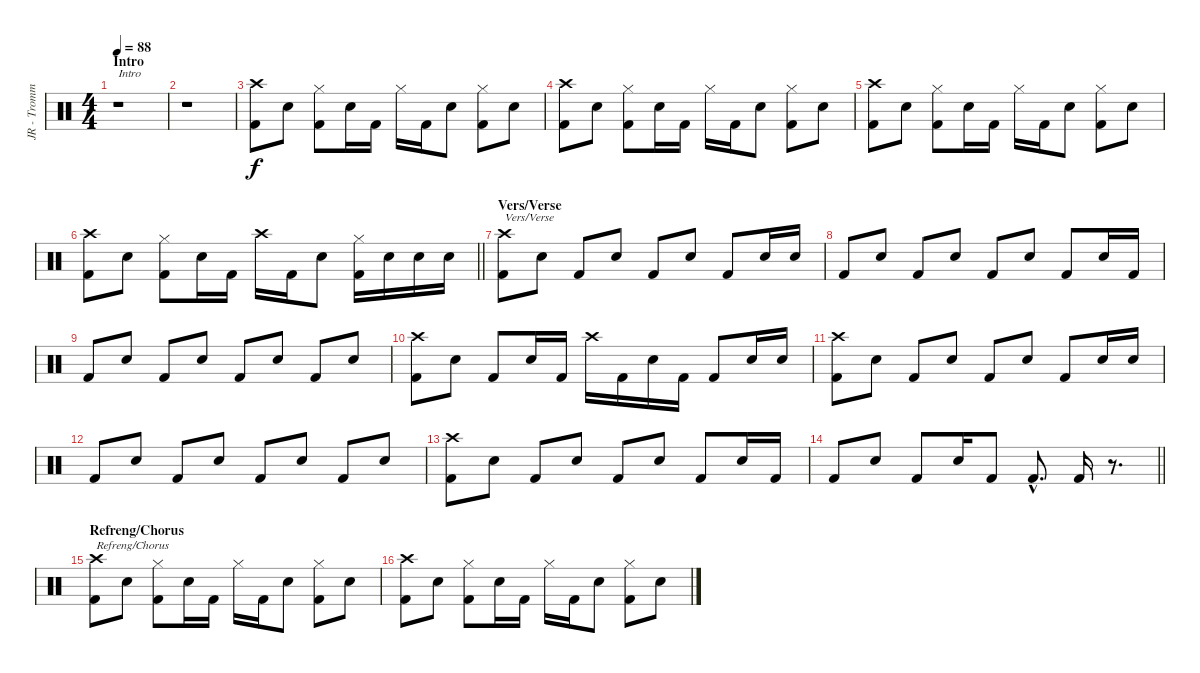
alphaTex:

\track ("JR - Trommesett" "JR - Tromm") {instrument percussion}
\staff {score}
\articulation defaults
\ts (4 4)
\section ("" "Intro")
\tempo 88
\clef neutral
\ks c
r.1{txt "Intro" dy f} |
r.1 |
("Crash high (hit)" "Kick (hit) 2").8 "Electric Snare (hit)".8 ("Hi-Hat (closed)" "Kick (hit) 2").8 "Electric Snare (hit)".16 "Kick (hit) 2".16 "Hi-Hat (closed)".16 "Kick (hit) 2".16 "Electric Snare (hit)".8 ("Hi-Hat (closed)" "Kick (hit) 2").8 "Electric Snare (hit)".8 |
("Crash high (hit)" "Kick (hit) 2").8 "Electric Snare (hit)".8 ("Hi-Hat (closed)" "Kick (hit) 2").8 "Electric Snare (hit)".16 "Kick (hit) 2".16 "Hi-Hat (closed)".16 "Kick (hit) 2".16 "Electric Snare (hit)".8 ("Hi-Hat (closed)" "Kick (hit) 2").8 "Electric Snare (hit)".8 |
("Crash high (hit)" "Kick (hit) 2").8 "Electric Snare (hit)".8 ("Hi-Hat (closed)" "Kick (hit) 2").8 "Electric Snare (hit)".16 "Kick (hit) 2".16 "Hi-Hat (closed)".16 "Kick (hit) 2".16 "Electric Snare (hit)".8 ("Hi-Hat (closed)" "Kick (hit) 2").8 "Electric Snare (hit)".8 |
\barLineRight lightlight
("Crash high (hit)" "Kick (hit) 2").8 "Electric Snare (hit)".8 ("Hi-Hat (closed)" "Kick (hit) 2").8 "Electric Snare (hit)".16 "Kick (hit) 2".16 "Crash high (hit)".16 "Kick (hit) 2".16 "Electric Snare (hit)".8 ("Hi-Hat (closed)" "Kick (hit) 2").16 "Electric Snare (hit)".16 "Electric Snare (hit)".16 "Electric Snare (hit)".16 |
\section ("" "Vers/Verse")
("Crash high (hit)" "Kick (hit) 2").8{txt "Vers/Verse"} "Electric Snare (hit)".8 "Kick (hit) 2".8 "Electric Snare (hit)".8 "Kick (hit) 2".8 "Electric Snare (hit)".8 "Kick (hit) 2".8 "Electric Snare (hit)".16 "Electric Snare (hit)".16 |
"Kick (hit) 2".8 "Electric Snare (hit)".8 "Kick (hit) 2".8 "Electric Snare (hit)".8 "Kick (hit) 2".8 "Electric Snare (hit)".8 "Kick (hit) 2".8 "Electric Snare (hit)".16 "Kick (hit) 2".16 |
"Kick (hit) 2".8 "Electric Snare (hit)".8 "Kick (hit) 2".8 "Electric Snare (hit)".8 "Kick (hit) 2".8 "Electric Snare (hit)".8 "Kick (hit) 2".8 "Electric Snare (hit)".8 |
("Crash high (hit)" "Kick (hit) 2").8 "Electric Snare (hit)".8 "Kick (hit) 2".8 "Electric Snare (hit)".16 "Kick (hit) 2".16 "Crash high (hit)".16 "Kick (hit) 2".16 "Electric Snare (hit)".16 "Kick (hit) 2".16 "Kick (hit) 2".8 "Electric Snare (hit)".16 "Electric Snare (hit)".16 |
("Crash high (hit)" "Kick (hit) 2").8 "Electric Snare (hit)".8 "Kick (hit) 2".8 "Electric Snare (hit)".8 "Kick (hit) 2".8 "Electric Snare (hit)".8 "Kick (hit) 2".8 "Electric Snare (hit)".16 "Electric Snare (hit)".16 |
"Kick (hit) 2".8 "Electric Snare (hit)".8 "Kick (hit) 2".8 "Electric Snare (hit)".8 "Kick (hit) 2".8 "Electric Snare (hit)".8 "Kick (hit) 2".8 "Electric Snare (hit)".8 |
("Crash high (hit)" "Kick (hit) 2").8 "Electric Snare (hit)".8 "Kick (hit) 2".8 "Electric Snare (hit)".8 "Kick (hit) 2".8 "Electric Snare (hit)".8 "Kick (hit) 2".8 "Electric Snare (hit)".16 "Kick (hit) 2".16 |
\barLineRight lightlight "Kick (hit) 2".8 "Electric Snare (hit)".8 "Kick (hit) 2".8 "Electric Snare (hit)".16 "Kick (hit) 2".8 "Kick (hit) 2"{hac}.8{d} "Kick (hit) 2".16
r.8{d} |
\section ("" "Refreng/Chorus")
("Crash high (hit)" "Kick (hit) 2").8{txt "Refreng/Chorus"} "Electric Snare (hit)".8 ("Hi-Hat (closed)" "Kick (hit) 2").8 "Electric Snare (hit)".16 "Kick (hit) 2".16 "Hi-Hat (closed)".16 "Kick (hit) 2".16 "Electric Snare (hit)".8 ("Hi-Hat (closed)" "Kick (hit) 2").8 "Electric Snare (hit)".8 |
("Crash high (hit)" "Kick (hit) 2").8 "Electric Snare (hit)".8 ("Hi-Hat (closed)" "Kick (hit) 2").8 "Electric Snare (hit)".16 "Kick (hit) 2".16 "Hi-Hat (closed)".16 "Kick (hit) 2".16 "Electric Snare (hit)".8 ("Hi-Hat (closed)" "Kick (hit) 2").8 "Electric Snare (hit)".8
